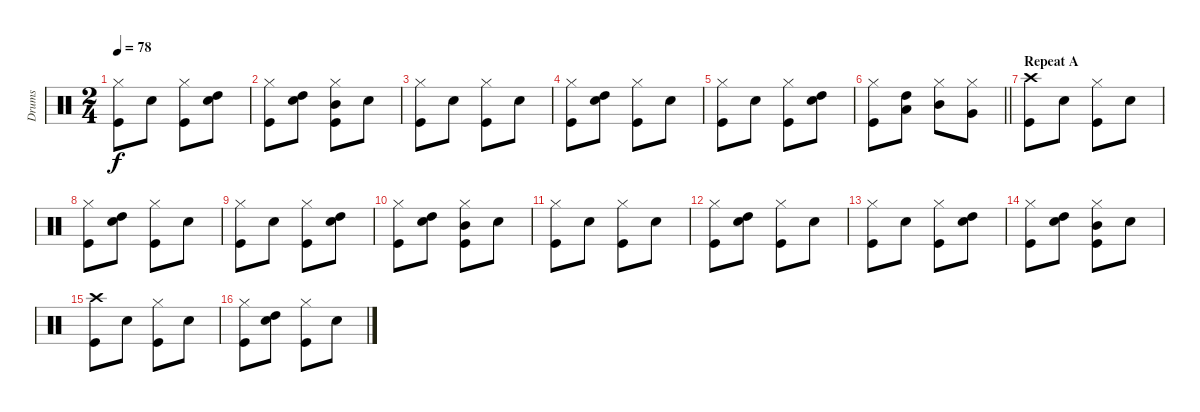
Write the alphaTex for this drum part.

\track ("Drums" "Drums") {instrument percussion}
\staff {score}
\articulation defaults
\ts (2 4)
\tempo 78
\clef neutral
\ks c
("Hi-Hat (closed)" "Kick (hit)").8{dy f} "Electric Snare (hit)".8 ("Hi-Hat (closed)" "Kick (hit)").8 ("High Tom (hit)" "Electric Snare (hit)").8 |
("Hi-Hat (closed)" "Kick (hit)").8 ("High Tom (hit)" "Electric Snare (hit)").8 ("Hi-Hat (closed)" "Mid Tom (hit)" "Kick (hit)").8 "Electric Snare (hit)".8 |
("Hi-Hat (closed)" "Kick (hit)").8 "Electric Snare (hit)".8 ("Hi-Hat (closed)" "Kick (hit)").8 "Electric Snare (hit)".8 |
("Hi-Hat (closed)" "Kick (hit)").8 ("High Tom (hit)" "Electric Snare (hit)").8 ("Hi-Hat (closed)" "Kick (hit)").8 "Electric Snare (hit)".8 |
("Hi-Hat (closed)" "Kick (hit)").8 "Electric Snare (hit)".8 ("Hi-Hat (closed)" "Kick (hit)").8 ("High Tom (hit)" "Electric Snare (hit)").8 |
\barLineRight lightlight
("Hi-Hat (closed)" "Kick (hit)").8 ("High Tom (hit)" "Low Tom (hit)").8 ("Hi-Hat (closed)" "Mid Tom (hit)").8 ("Hi-Hat (closed)" "Very Low Tom (hit)").8 |
\section ("" "Repeat A")
("Crash high (hit)" "Kick (hit)").8 "Electric Snare (hit)".8 ("Hi-Hat (closed)" "Kick (hit)").8 "Electric Snare (hit)".8 |
("Hi-Hat (closed)" "Kick (hit)").8 ("High Tom (hit)" "Electric Snare (hit)").8 ("Hi-Hat (closed)" "Kick (hit)").8 "Electric Snare (hit)".8 |
("Hi-Hat (closed)" "Kick (hit)").8 "Electric Snare (hit)".8 ("Hi-Hat (closed)" "Kick (hit)").8 ("High Tom (hit)" "Electric Snare (hit)").8 |
("Hi-Hat (closed)" "Kick (hit)").8 ("High Tom (hit)" "Electric Snare (hit)").8 ("Hi-Hat (closed)" "Mid Tom (hit)" "Kick (hit)").8 "Electric Snare (hit)".8 |
("Hi-Hat (closed)" "Kick (hit)").8 "Electric Snare (hit)".8 ("Hi-Hat (closed)" "Kick (hit)").8 "Electric Snare (hit)".8 |
("Hi-Hat (closed)" "Kick (hit)").8 ("High Tom (hit)" "Electric Snare (hit)").8 ("Hi-Hat (closed)" "Kick (hit)").8 "Electric Snare (hit)".8 |
("Hi-Hat (closed)" "Kick (hit)").8 "Electric Snare (hit)".8 ("Hi-Hat (closed)" "Kick (hit)").8 ("High Tom (hit)" "Electric Snare (hit)").8 |
("Hi-Hat (closed)" "Kick (hit)").8 ("High Tom (hit)" "Electric Snare (hit)").8 ("Hi-Hat (closed)" "Mid Tom (hit)" "Kick (hit)").8 "Electric Snare (hit)".8 |
("Crash high (hit)" "Kick (hit)").8 "Electric Snare (hit)".8 ("Hi-Hat (closed)" "Kick (hit)").8 "Electric Snare (hit)".8 |
("Hi-Hat (closed)" "Kick (hit)").8 ("High Tom (hit)" "Electric Snare (hit)").8 ("Hi-Hat (closed)" "Kick (hit)").8 "Electric Snare (hit)".8
